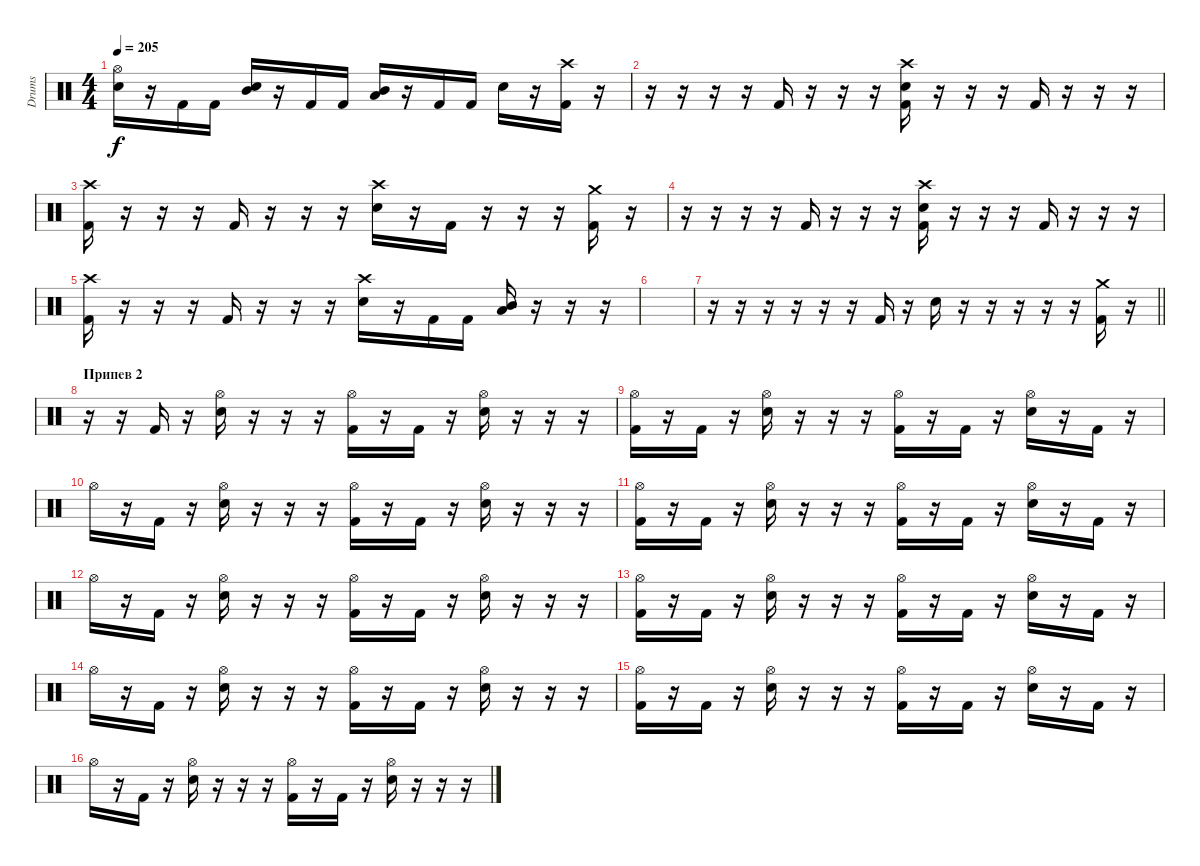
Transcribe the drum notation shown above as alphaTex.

\track ("Drums" "Drums") {instrument percussion}
\staff {score}
\articulation defaults
\ts (4 4)
\tempo 205
\clef neutral
\ks c
("Hi-Hat (open)" "Electric Snare (hit)").16{dy f} r.16 "Kick (hit) 2".16 "Kick (hit) 2".16 ("Mid Tom (hit)" "Electric Snare (hit)").16 r.16 "Kick (hit) 2".16 "Kick (hit) 2".16 ("Mid Tom (hit)" "Low Tom (hit)").16 r.16 "Kick (hit) 2".16 "Kick (hit) 2".16 "Electric Snare (hit)".16 r.16 ("Crash high (hit)" "Kick (hit) 2").16 r.16 |
r.16 r.16 r.16 r.16 "Kick (hit) 2".16 r.16 r.16 r.16 ("Crash high (hit)" "Electric Snare (hit)" "Kick (hit) 2").16 r.16 r.16 r.16 "Kick (hit) 2".16 r.16 r.16 r.16 |
("Crash high (hit)" "Kick (hit) 2").16 r.16 r.16 r.16 "Kick (hit) 2".16 r.16 r.16 r.16 ("Crash high (hit)" "Electric Snare (hit)").16 r.16 "Kick (hit) 2".16 r.16 r.16 r.16 ("Crash medium (hit)" "Kick (hit) 2").16 r.16 |
r.16 r.16 r.16 r.16 "Kick (hit) 2".16 r.16 r.16 r.16 ("Crash high (hit)" "Electric Snare (hit)" "Kick (hit) 2").16 r.16 r.16 r.16 "Kick (hit) 2".16 r.16 r.16 r.16 |
("Crash high (hit)" "Kick (hit) 2").16 r.16 r.16 r.16 "Kick (hit) 2".16 r.16 r.16 r.16 ("Crash high (hit)" "Electric Snare (hit)").16 r.16 "Kick (hit) 2".16 "Kick (hit) 2".16 ("Mid Tom (hit)" "Low Tom (hit)").16 r.16 r.16 r.16 |
|
\barLineRight lightlight
r.16 r.16 r.16 r.16 r.16 r.16 "Kick (hit) 2".16 r.16 "Electric Snare (hit)".16 r.16 r.16 r.16 r.16 r.16 ("Crash medium (hit)" "Kick (hit) 2").16 r.16 |
\section ("" "Припев 2")
r.16 r.16 "Kick (hit) 2".16 r.16 ("Hi-Hat (open)" "Electric Snare (hit)").16 r.16 r.16 r.16 ("Hi-Hat (open)" "Kick (hit) 2").16 r.16 "Kick (hit) 2".16 r.16 ("Hi-Hat (open)" "Electric Snare (hit)").16 r.16 r.16 r.16 |
("Hi-Hat (open)" "Kick (hit) 2").16 r.16 "Kick (hit) 2".16 r.16 ("Hi-Hat (open)" "Electric Snare (hit)").16 r.16 r.16 r.16 ("Hi-Hat (open)" "Kick (hit) 2").16 r.16 "Kick (hit) 2".16 r.16 ("Hi-Hat (open)" "Electric Snare (hit)").16 r.16 "Kick (hit) 2".16 r.16 |
"Hi-Hat (open)".16 r.16 "Kick (hit) 2".16 r.16 ("Hi-Hat (open)" "Electric Snare (hit)").16 r.16 r.16 r.16 ("Hi-Hat (open)" "Kick (hit) 2").16 r.16 "Kick (hit) 2".16 r.16 ("Hi-Hat (open)" "Electric Snare (hit)").16 r.16 r.16 r.16 |
("Hi-Hat (open)" "Kick (hit) 2").16 r.16 "Kick (hit) 2".16 r.16 ("Hi-Hat (open)" "Electric Snare (hit)").16 r.16 r.16 r.16 ("Hi-Hat (open)" "Kick (hit) 2").16 r.16 "Kick (hit) 2".16 r.16 ("Hi-Hat (open)" "Electric Snare (hit)").16 r.16 "Kick (hit) 2".16 r.16 |
"Hi-Hat (open)".16 r.16 "Kick (hit) 2".16 r.16 ("Hi-Hat (open)" "Electric Snare (hit)").16 r.16 r.16 r.16 ("Hi-Hat (open)" "Kick (hit) 2").16 r.16 "Kick (hit) 2".16 r.16 ("Hi-Hat (open)" "Electric Snare (hit)").16 r.16 r.16 r.16 |
("Hi-Hat (open)" "Kick (hit) 2").16 r.16 "Kick (hit) 2".16 r.16 ("Hi-Hat (open)" "Electric Snare (hit)").16 r.16 r.16 r.16 ("Hi-Hat (open)" "Kick (hit) 2").16 r.16 "Kick (hit) 2".16 r.16 ("Hi-Hat (open)" "Electric Snare (hit)").16 r.16 "Kick (hit) 2".16 r.16 |
"Hi-Hat (open)".16 r.16 "Kick (hit) 2".16 r.16 ("Hi-Hat (open)" "Electric Snare (hit)").16 r.16 r.16 r.16 ("Hi-Hat (open)" "Kick (hit) 2").16 r.16 "Kick (hit) 2".16 r.16 ("Hi-Hat (open)" "Electric Snare (hit)").16 r.16 r.16 r.16 |
("Hi-Hat (open)" "Kick (hit) 2").16 r.16 "Kick (hit) 2".16 r.16 ("Hi-Hat (open)" "Electric Snare (hit)").16 r.16 r.16 r.16 ("Hi-Hat (open)" "Kick (hit) 2").16 r.16 "Kick (hit) 2".16 r.16 ("Hi-Hat (open)" "Electric Snare (hit)").16 r.16 "Kick (hit) 2".16 r.16 |
"Hi-Hat (open)".16 r.16 "Kick (hit) 2".16 r.16 ("Hi-Hat (open)" "Electric Snare (hit)").16 r.16 r.16 r.16 ("Hi-Hat (open)" "Kick (hit) 2").16 r.16 "Kick (hit) 2".16 r.16 ("Hi-Hat (open)" "Electric Snare (hit)").16 r.16 r.16 r.16
